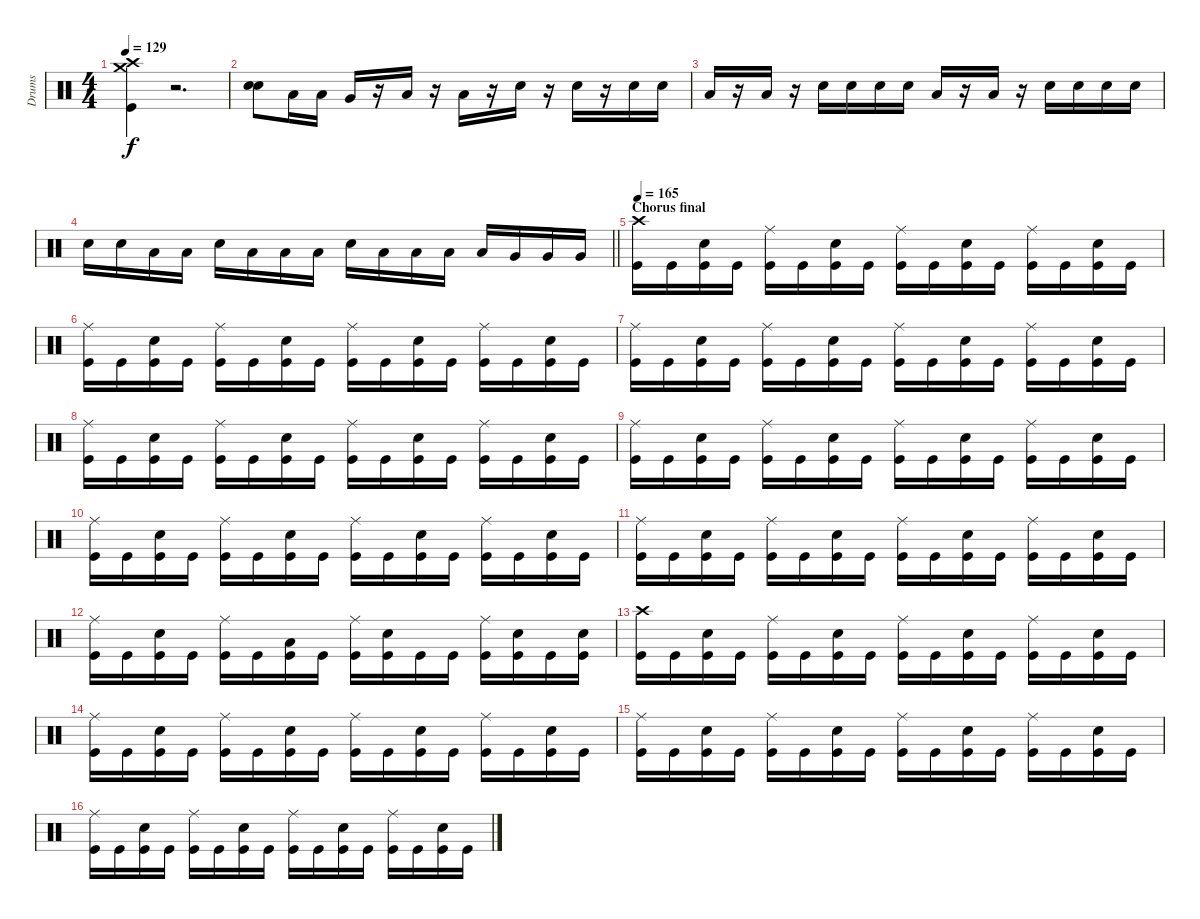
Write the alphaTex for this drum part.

\track ("Drums" "Drums") {instrument percussion}
\staff {score}
\articulation defaults
\ts (4 4)
\tempo 129
\clef neutral
\ks c
("Crash high (hit)" "Crash medium (hit)" "Kick (hit)").4{dy f} r.2{d} |
("Electric Snare (hit)" "Electric Snare (hit)").8 "Low Tom (hit)".16 "Low Tom (hit)".16 "Very Low Tom (hit)".16 r.16 "Low Floor Tom (hit)".16 r.16 "Low Floor Tom (hit)".16 r.16 "Electric Snare (hit)".16 r.16 "Electric Snare (hit)".16 r.16 "Electric Snare (hit)".16 "Electric Snare (hit)".16 |
"Low Tom (hit)".16 r.16 "Low Tom (hit)".16 r.16 "Electric Snare (hit)".16 "Electric Snare (hit)".16 "Electric Snare (hit)".16 "Electric Snare (hit)".16 "Low Tom (hit)".16 r.16 "Low Tom (hit)".16 r.16 "Electric Snare (hit)".16 "Electric Snare (hit)".16 "Electric Snare (hit)".16 "Electric Snare (hit)".16 |
\barLineRight lightlight "Electric Snare (hit)".16 "Electric Snare (hit)".16 "Low Tom (hit)".16 "Low Tom (hit)".16 "Electric Snare (hit)".16 "Low Tom (hit)".16 "Low Tom (hit)".16 "Low Tom (hit)".16 "Electric Snare (hit)".16 "Low Tom (hit)".16 "Low Tom (hit)".16 "Low Tom (hit)".16 "Low Tom (hit)".16 "Very Low Tom (hit)".16 "Very Low Tom (hit)".16 "Very Low Tom (hit)".16
|
\section ("" "Chorus final")
\tempo 165
("Kick (hit)" "Crash high (hit)").16{volume 14 balance 8} "Kick (hit)".16 ("Electric Snare (hit)" "Kick (hit)").16 "Kick (hit)".16 ("Ride (middle)" "Kick (hit)").16 "Kick (hit)".16 ("Electric Snare (hit)" "Kick (hit)").16 "Kick (hit)".16 ("Ride (middle)" "Kick (hit)").16 "Kick (hit)".16 ("Electric Snare (hit)" "Kick (hit)").16 "Kick (hit)".16 ("Ride (middle)" "Kick (hit)").16 "Kick (hit)".16 ("Electric Snare (hit)" "Kick (hit)").16 "Kick (hit)".16 |
("Ride (middle)" "Kick (hit)").16 "Kick (hit)".16 ("Electric Snare (hit)" "Kick (hit)").16 "Kick (hit)".16 ("Ride (middle)" "Kick (hit)").16 "Kick (hit)".16 ("Electric Snare (hit)" "Kick (hit)").16 "Kick (hit)".16 ("Ride (middle)" "Kick (hit)").16 "Kick (hit)".16 ("Electric Snare (hit)" "Kick (hit)").16 "Kick (hit)".16 ("Ride (middle)" "Kick (hit)").16 "Kick (hit)".16 ("Electric Snare (hit)" "Kick (hit)").16 "Kick (hit)".16 |
("Ride (middle)" "Kick (hit)").16 "Kick (hit)".16 ("Electric Snare (hit)" "Kick (hit)").16 "Kick (hit)".16 ("Ride (middle)" "Kick (hit)").16 "Kick (hit)".16 ("Electric Snare (hit)" "Kick (hit)").16 "Kick (hit)".16 ("Ride (middle)" "Kick (hit)").16 "Kick (hit)".16 ("Electric Snare (hit)" "Kick (hit)").16 "Kick (hit)".16 ("Ride (middle)" "Kick (hit)").16 "Kick (hit)".16 ("Electric Snare (hit)" "Kick (hit)").16 "Kick (hit)".16 |
("Ride (middle)" "Kick (hit)").16 "Kick (hit)".16 ("Electric Snare (hit)" "Kick (hit)").16 "Kick (hit)".16 ("Ride (middle)" "Kick (hit)").16 "Kick (hit)".16 ("Electric Snare (hit)" "Kick (hit)").16 "Kick (hit)".16 ("Ride (middle)" "Kick (hit)").16 "Kick (hit)".16 ("Electric Snare (hit)" "Kick (hit)").16 "Kick (hit)".16 ("Ride (middle)" "Kick (hit)").16 "Kick (hit)".16 ("Electric Snare (hit)" "Kick (hit)").16 "Kick (hit)".16 |
("Ride (middle)" "Kick (hit)").16 "Kick (hit)".16 ("Electric Snare (hit)" "Kick (hit)").16 "Kick (hit)".16 ("Ride (middle)" "Kick (hit)").16 "Kick (hit)".16 ("Electric Snare (hit)" "Kick (hit)").16 "Kick (hit)".16 ("Ride (middle)" "Kick (hit)").16 "Kick (hit)".16 ("Electric Snare (hit)" "Kick (hit)").16 "Kick (hit)".16 ("Ride (middle)" "Kick (hit)").16 "Kick (hit)".16 ("Electric Snare (hit)" "Kick (hit)").16 "Kick (hit)".16 |
("Ride (middle)" "Kick (hit)").16 "Kick (hit)".16 ("Electric Snare (hit)" "Kick (hit)").16 "Kick (hit)".16 ("Ride (middle)" "Kick (hit)").16 "Kick (hit)".16 ("Electric Snare (hit)" "Kick (hit)").16 "Kick (hit)".16 ("Ride (middle)" "Kick (hit)").16 "Kick (hit)".16 ("Electric Snare (hit)" "Kick (hit)").16 "Kick (hit)".16 ("Ride (middle)" "Kick (hit)").16 "Kick (hit)".16 ("Electric Snare (hit)" "Kick (hit)").16 "Kick (hit)".16 |
("Ride (middle)" "Kick (hit)").16 "Kick (hit)".16 ("Electric Snare (hit)" "Kick (hit)").16 "Kick (hit)".16 ("Ride (middle)" "Kick (hit)").16 "Kick (hit)".16 ("Electric Snare (hit)" "Kick (hit)").16 "Kick (hit)".16 ("Ride (middle)" "Kick (hit)").16 "Kick (hit)".16 ("Electric Snare (hit)" "Kick (hit)").16 "Kick (hit)".16 ("Ride (middle)" "Kick (hit)").16 "Kick (hit)".16 ("Electric Snare (hit)" "Kick (hit)").16 "Kick (hit)".16 |
("Ride (middle)" "Kick (hit)").16 "Kick (hit)".16 ("Electric Snare (hit)" "Kick (hit)").16 "Kick (hit)".16 ("Ride (middle)" "Kick (hit)").16 "Kick (hit)".16 ("Low Tom (hit)" "Kick (hit)").16 "Kick (hit)".16 ("Ride (middle)" "Kick (hit)").16 ("Electric Snare (hit)" "Kick (hit)").16 "Kick (hit)".16 "Kick (hit)".16 ("Ride (middle)" "Kick (hit)").16 ("Electric Snare (hit)" "Kick (hit)").16 "Kick (hit)".16 ("Electric Snare (hit)" "Kick (hit)").16 |
("Kick (hit)" "Crash high (hit)").16 "Kick (hit)".16 ("Electric Snare (hit)" "Kick (hit)").16 "Kick (hit)".16 ("Ride (middle)" "Kick (hit)").16 "Kick (hit)".16 ("Electric Snare (hit)" "Kick (hit)").16 "Kick (hit)".16 ("Ride (middle)" "Kick (hit)").16 "Kick (hit)".16 ("Electric Snare (hit)" "Kick (hit)").16 "Kick (hit)".16 ("Ride (middle)" "Kick (hit)").16 "Kick (hit)".16 ("Electric Snare (hit)" "Kick (hit)").16 "Kick (hit)".16 |
("Ride (middle)" "Kick (hit)").16 "Kick (hit)".16 ("Electric Snare (hit)" "Kick (hit)").16 "Kick (hit)".16 ("Ride (middle)" "Kick (hit)").16 "Kick (hit)".16 ("Electric Snare (hit)" "Kick (hit)").16 "Kick (hit)".16 ("Ride (middle)" "Kick (hit)").16 "Kick (hit)".16 ("Electric Snare (hit)" "Kick (hit)").16 "Kick (hit)".16 ("Ride (middle)" "Kick (hit)").16 "Kick (hit)".16 ("Electric Snare (hit)" "Kick (hit)").16 "Kick (hit)".16 |
("Ride (middle)" "Kick (hit)").16 "Kick (hit)".16 ("Electric Snare (hit)" "Kick (hit)").16 "Kick (hit)".16 ("Ride (middle)" "Kick (hit)").16 "Kick (hit)".16 ("Electric Snare (hit)" "Kick (hit)").16 "Kick (hit)".16 ("Ride (middle)" "Kick (hit)").16 "Kick (hit)".16 ("Electric Snare (hit)" "Kick (hit)").16 "Kick (hit)".16 ("Ride (middle)" "Kick (hit)").16 "Kick (hit)".16 ("Electric Snare (hit)" "Kick (hit)").16 "Kick (hit)".16 |
("Ride (middle)" "Kick (hit)").16 "Kick (hit)".16 ("Electric Snare (hit)" "Kick (hit)").16 "Kick (hit)".16 ("Ride (middle)" "Kick (hit)").16 "Kick (hit)".16 ("Electric Snare (hit)" "Kick (hit)").16 "Kick (hit)".16 ("Ride (middle)" "Kick (hit)").16 "Kick (hit)".16 ("Electric Snare (hit)" "Kick (hit)").16 "Kick (hit)".16 ("Ride (middle)" "Kick (hit)").16 "Kick (hit)".16 ("Electric Snare (hit)" "Kick (hit)").16 "Kick (hit)".16
